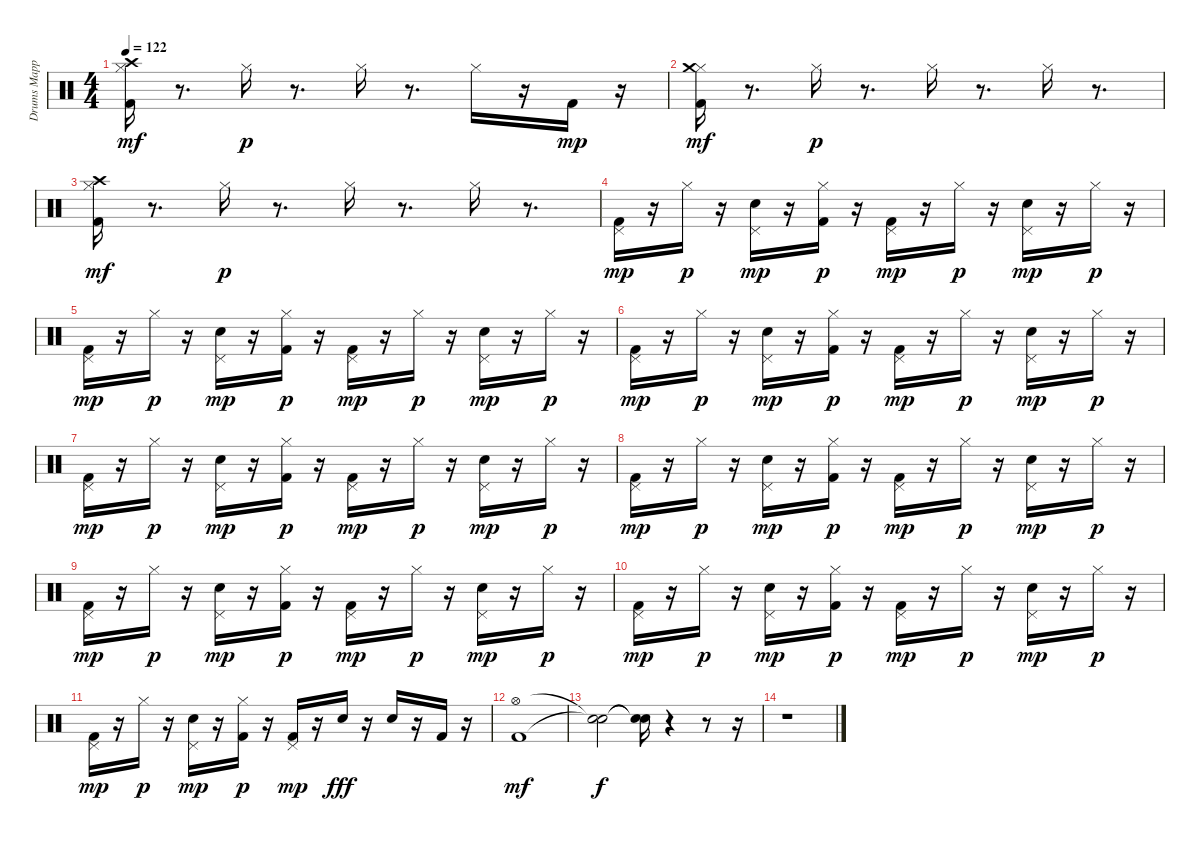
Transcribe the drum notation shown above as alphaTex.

\track ("Drums Mapped*merged" "Drums Mapp") {instrument percussion}
\staff {score}
\articulation defaults
\ts (4 4)
\tempo 122
\clef neutral
\ks c
("Kick (hit) 2" "Hi-Hat (closed)" "Crash high (hit)").16{dy mf} r.8{d} "Hi-Hat (closed)".16{dy p} r.8{d} "Hi-Hat (closed)".16 r.8{d} "Hi-Hat (closed)".16 r.16 "Kick (hit) 2".16{dy mp} r.16 |
("Kick (hit) 2" "Hi-Hat (closed)" "Crash medium (hit)").16{dy mf} r.8{d} "Hi-Hat (closed)".16{dy p} r.8{d} "Hi-Hat (closed)".16 r.8{d} "Hi-Hat (closed)".16 r.8{d} |
("Kick (hit) 2" "Hi-Hat (closed)" "Crash high (hit)").16{dy mf} r.8{d} "Hi-Hat (closed)".16{dy p} r.8{d} "Hi-Hat (closed)".16 r.8{d} "Hi-Hat (closed)".16 r.8{d} |
("Kick (hit) 2" "Pedal Hi-Hat (hit)").16{dy mp} r.16 "Hi-Hat (closed)".16{dy p} r.16 ("Electric Snare (hit)" "Pedal Hi-Hat (hit)").16{dy mp} r.16 ("Kick (hit) 2" "Hi-Hat (closed)").16{dy p} r.16 ("Kick (hit) 2" "Pedal Hi-Hat (hit)").16{dy mp} r.16 "Hi-Hat (closed)".16{dy p} r.16 ("Electric Snare (hit)" "Pedal Hi-Hat (hit)").16{dy mp} r.16 "Hi-Hat (closed)".16{dy p} r.16 |
("Kick (hit) 2" "Pedal Hi-Hat (hit)").16{dy mp} r.16 "Hi-Hat (closed)".16{dy p} r.16 ("Electric Snare (hit)" "Pedal Hi-Hat (hit)").16{dy mp} r.16 ("Kick (hit) 2" "Hi-Hat (closed)").16{dy p} r.16 ("Kick (hit) 2" "Pedal Hi-Hat (hit)").16{dy mp} r.16 "Hi-Hat (closed)".16{dy p} r.16 ("Electric Snare (hit)" "Pedal Hi-Hat (hit)").16{dy mp} r.16 "Hi-Hat (closed)".16{dy p} r.16 |
("Kick (hit) 2" "Pedal Hi-Hat (hit)").16{dy mp} r.16 "Hi-Hat (closed)".16{dy p} r.16 ("Electric Snare (hit)" "Pedal Hi-Hat (hit)").16{dy mp} r.16 ("Kick (hit) 2" "Hi-Hat (closed)").16{dy p} r.16 ("Kick (hit) 2" "Pedal Hi-Hat (hit)").16{dy mp} r.16 "Hi-Hat (closed)".16{dy p} r.16 ("Electric Snare (hit)" "Pedal Hi-Hat (hit)").16{dy mp} r.16 "Hi-Hat (closed)".16{dy p} r.16 |
("Kick (hit) 2" "Pedal Hi-Hat (hit)").16{dy mp} r.16 "Hi-Hat (closed)".16{dy p} r.16 ("Electric Snare (hit)" "Pedal Hi-Hat (hit)").16{dy mp} r.16 ("Kick (hit) 2" "Hi-Hat (closed)").16{dy p} r.16 ("Kick (hit) 2" "Pedal Hi-Hat (hit)").16{dy mp} r.16 "Hi-Hat (closed)".16{dy p} r.16 ("Electric Snare (hit)" "Pedal Hi-Hat (hit)").16{dy mp} r.16 "Hi-Hat (closed)".16{dy p} r.16 |
("Kick (hit) 2" "Pedal Hi-Hat (hit)").16{dy mp} r.16 "Hi-Hat (closed)".16{dy p} r.16 ("Electric Snare (hit)" "Pedal Hi-Hat (hit)").16{dy mp} r.16 ("Kick (hit) 2" "Hi-Hat (closed)").16{dy p} r.16 ("Kick (hit) 2" "Pedal Hi-Hat (hit)").16{dy mp} r.16 "Hi-Hat (closed)".16{dy p} r.16 ("Electric Snare (hit)" "Pedal Hi-Hat (hit)").16{dy mp} r.16 "Hi-Hat (closed)".16{dy p} r.16 |
("Kick (hit) 2" "Pedal Hi-Hat (hit)").16{dy mp} r.16 "Hi-Hat (closed)".16{dy p} r.16 ("Electric Snare (hit)" "Pedal Hi-Hat (hit)").16{dy mp} r.16 ("Kick (hit) 2" "Hi-Hat (closed)").16{dy p} r.16 ("Kick (hit) 2" "Pedal Hi-Hat (hit)").16{dy mp} r.16 "Hi-Hat (closed)".16{dy p} r.16 ("Electric Snare (hit)" "Pedal Hi-Hat (hit)").16{dy mp} r.16 "Hi-Hat (closed)".16{dy p} r.16 |
("Kick (hit) 2" "Pedal Hi-Hat (hit)").16{dy mp} r.16 "Hi-Hat (closed)".16{dy p} r.16 ("Electric Snare (hit)" "Pedal Hi-Hat (hit)").16{dy mp} r.16 ("Kick (hit) 2" "Hi-Hat (closed)").16{dy p} r.16 ("Kick (hit) 2" "Pedal Hi-Hat (hit)").16{dy mp} r.16 "Hi-Hat (closed)".16{dy p} r.16 ("Electric Snare (hit)" "Pedal Hi-Hat (hit)").16{dy mp} r.16 "Hi-Hat (closed)".16{dy p} r.16 |
("Kick (hit) 2" "Pedal Hi-Hat (hit)").16{dy mp} r.16 "Hi-Hat (closed)".16{dy p} r.16 ("Electric Snare (hit)" "Pedal Hi-Hat (hit)").16{dy mp} r.16 ("Kick (hit) 2" "Hi-Hat (closed)").16{dy p} r.16 ("Kick (hit) 2" "Pedal Hi-Hat (hit)").16{dy mp} r.16 "Electric Snare (hit)".16{dy fff} r.16 "Electric Snare (hit)".16 r.16 "Kick (hit) 2".16 r.16 |
("Hi-Hat (open)" "Kick (hit) 2").1{dy mf} |
("Snare (hit)"{t} "Snare (hit)"{t}).2{dy f} ("Snare (hit)"{t} "Snare (hit)"{t}).16 r.4 r.8 r.16 |
r.1
